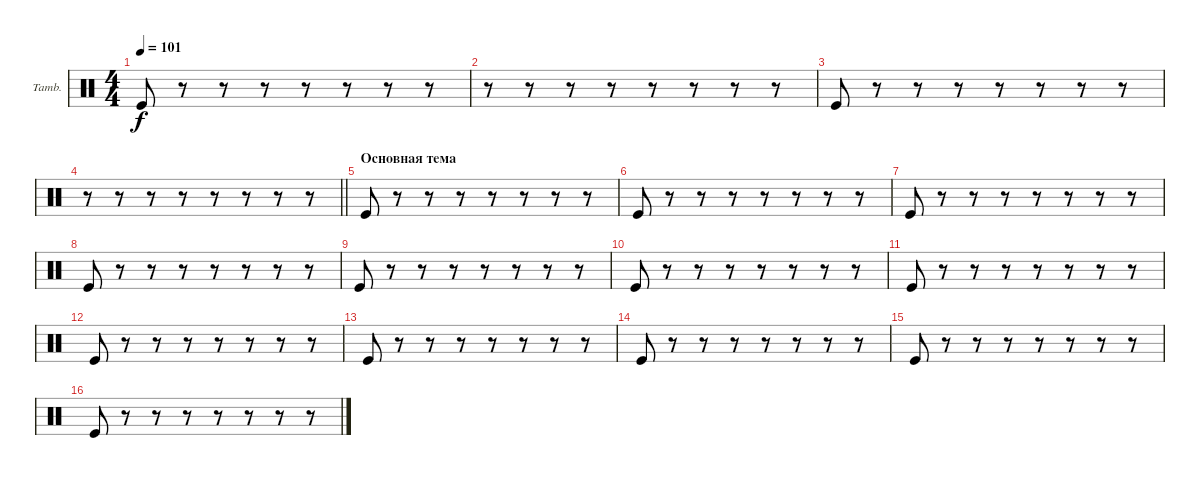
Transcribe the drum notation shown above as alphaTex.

\bracketExtendMode groupsimilarinstruments
\firstSystemTrackNameOrientation horizontal
\otherSystemsTrackNameOrientation horizontal
\track ("Tambourine" "Tamb.") {instrument percussion}
\staff {score}
\articulation defaults
\ts (4 4)
\tempo 101
\clef neutral
\ks c "Kick (hit)".8{dy f}
r.8 r.8 r.8 r.8 r.8 r.8 r.8 |
r.8 r.8 r.8 r.8 r.8 r.8 r.8 r.8 |
"Kick (hit)".8 r.8 r.8 r.8 r.8 r.8 r.8 r.8 |
\barLineRight lightlight
r.8 r.8 r.8 r.8 r.8 r.8 r.8 r.8 |
\section ("" "Основная тема")
"Kick (hit)".8 r.8 r.8 r.8 r.8 r.8 r.8 r.8 |
"Kick (hit)".8 r.8 r.8 r.8 r.8 r.8 r.8 r.8 |
"Kick (hit)".8 r.8 r.8 r.8 r.8 r.8 r.8 r.8 |
"Kick (hit)".8 r.8 r.8 r.8 r.8 r.8 r.8 r.8 |
"Kick (hit)".8 r.8 r.8 r.8 r.8 r.8 r.8 r.8 |
"Kick (hit)".8 r.8 r.8 r.8 r.8 r.8 r.8 r.8 |
"Kick (hit)".8 r.8 r.8 r.8 r.8 r.8 r.8 r.8 |
"Kick (hit)".8 r.8 r.8 r.8 r.8 r.8 r.8 r.8 |
"Kick (hit)".8 r.8 r.8 r.8 r.8 r.8 r.8 r.8 |
"Kick (hit)".8 r.8 r.8 r.8 r.8 r.8 r.8 r.8 |
"Kick (hit)".8 r.8 r.8 r.8 r.8 r.8 r.8 r.8 |
"Kick (hit)".8 r.8 r.8 r.8 r.8 r.8 r.8 r.8
